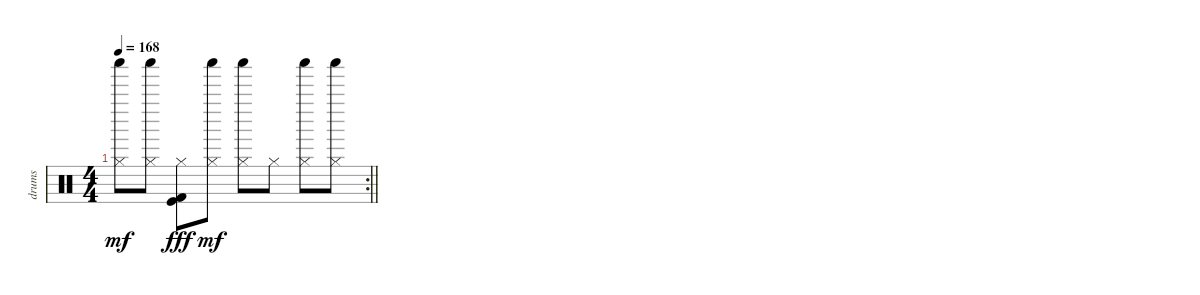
\track ("drums" "drums") {instrument percussion}
\staff {score}
\articulation defaults
\rc 2
\ts (4 4)
\tempo 168
\clef neutral
\barLineRight lightlight
\ks c
("Hi-Hat (closed)" "Shaker (hit)").8{dy mf} ("Hi-Hat (closed)" "Shaker (hit)").8 ("Hi-Hat (closed)" "Kick (hit) 2" "Kick (hit)").8{dy fff} ("Hi-Hat (closed)" "Shaker (hit)").8{dy mf} ("Hi-Hat (closed)" "Shaker (hit)").8 "Hi-Hat (closed)".8 ("Hi-Hat (closed)" "Shaker (hit)").8 ("Hi-Hat (closed)" "Shaker (hit)").8
